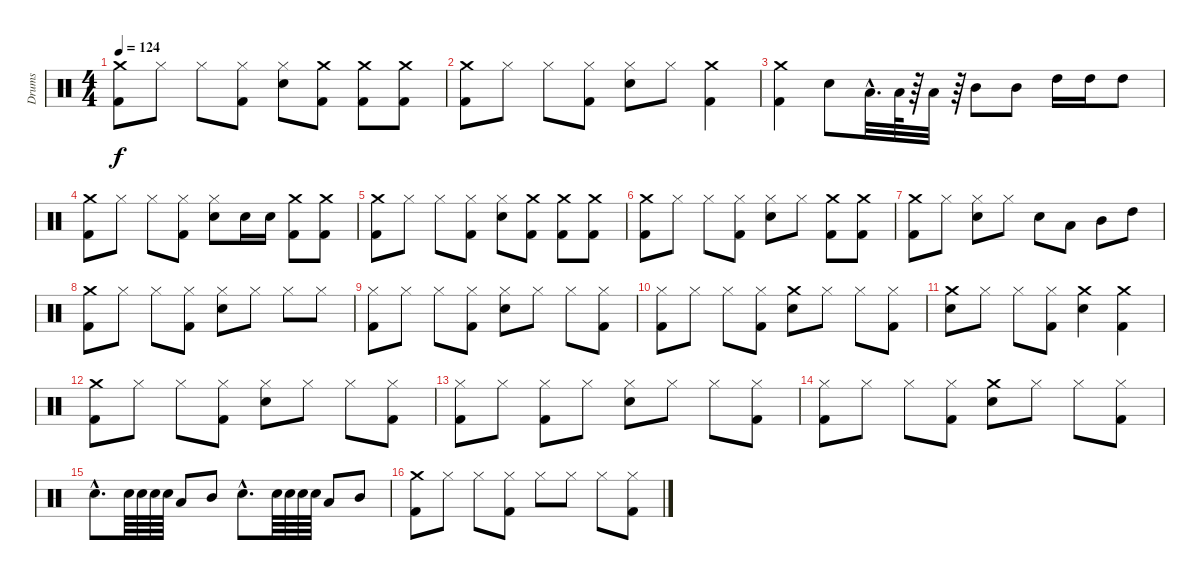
\track ("Drums" "Drums") {instrument percussion}
\staff {score}
\articulation defaults
\ts (4 4)
\tempo 124
\clef neutral
\ks c
("Kick (hit) 2" "Crash medium (hit)").8{dy f} "Hi-Hat (closed)".8 "Hi-Hat (closed)".8 ("Kick (hit) 2" "Hi-Hat (closed)").8 ("Snare (hit) 2" "Hi-Hat (closed)").8 ("Kick (hit) 2" "Crash medium (hit)").8 ("Kick (hit) 2" "Crash medium (hit)").8 ("Kick (hit) 2" "Crash medium (hit)").8 |
("Kick (hit) 2" "Crash medium (hit)").8 "Hi-Hat (closed)".8 "Hi-Hat (closed)".8 ("Kick (hit) 2" "Hi-Hat (closed)").8 ("Snare (hit) 2" "Hi-Hat (closed)").8 "Hi-Hat (closed)".8 ("Crash medium (hit)" "Kick (hit) 2").4 |
("Kick (hit) 2" "Crash medium (hit)").4 "Snare (hit) 2".8 "Low Tom (hit)"{hac}.32{d} "Low Tom (hit)".64 r.64 "Low Tom (hit)".32 r.64 "Mid Tom (hit)".8 "Mid Tom (hit)".8 "High Tom (hit)".16 "High Tom (hit)".16 "High Tom (hit)".8 |
("Kick (hit) 2" "Crash medium (hit)").8 "Hi-Hat (closed)".8 "Hi-Hat (closed)".8 ("Kick (hit) 2" "Hi-Hat (closed)").8 ("Snare (hit) 2" "Hi-Hat (closed)").8 "Snare (hit) 2".16 "Snare (hit) 2".16 ("Kick (hit) 2" "Crash medium (hit)").8 ("Kick (hit) 2" "Crash medium (hit)").8 |
("Crash medium (hit)" "Kick (hit) 2").8 "Hi-Hat (closed)".8 "Hi-Hat (closed)".8 ("Kick (hit) 2" "Hi-Hat (closed)").8 ("Snare (hit) 2" "Hi-Hat (closed)").8 ("Kick (hit) 2" "Crash medium (hit)").8 ("Kick (hit) 2" "Crash medium (hit)").8 ("Kick (hit) 2" "Crash medium (hit)").8 |
("Crash medium (hit)" "Kick (hit) 2").8 "Hi-Hat (closed)".8 "Hi-Hat (closed)".8 ("Kick (hit) 2" "Hi-Hat (closed)").8 ("Snare (hit) 2" "Hi-Hat (closed)").8 "Hi-Hat (closed)".8 ("Kick (hit) 2" "Crash medium (hit)").8 ("Kick (hit) 2" "Crash medium (hit)").8 |
("Kick (hit) 2" "Crash medium (hit)").8 "Hi-Hat (closed)".8 ("Snare (hit) 2" "Hi-Hat (closed)").8 "Hi-Hat (closed)".8 "Snare (hit) 2".8 "Low Tom (hit)".8 "Mid Tom (hit)".8 "High Tom (hit)".8 |
("Crash medium (hit)" "Kick (hit) 2").8 "Hi-Hat (closed)".8 "Hi-Hat (closed)".8 ("Kick (hit) 2" "Hi-Hat (closed)").8 ("Snare (hit) 2" "Hi-Hat (closed)").8 "Hi-Hat (closed)".8 "Hi-Hat (closed)".8 "Hi-Hat (closed)".8 |
("Hi-Hat (closed)" "Kick (hit) 2").8 "Hi-Hat (closed)".8 "Hi-Hat (closed)".8 ("Kick (hit) 2" "Hi-Hat (closed)").8 ("Hi-Hat (closed)" "Snare (hit) 2").8 "Hi-Hat (closed)".8 "Hi-Hat (closed)".8 ("Kick (hit) 2" "Hi-Hat (closed)").8 |
("Hi-Hat (closed)" "Kick (hit) 2").8 "Hi-Hat (closed)".8 "Hi-Hat (closed)".8 ("Kick (hit) 2" "Hi-Hat (closed)").8 ("Crash medium (hit)" "Snare (hit) 2").8 "Hi-Hat (closed)".8 "Hi-Hat (closed)".8 ("Kick (hit) 2" "Hi-Hat (closed)").8 |
("Snare (hit) 2" "Crash medium (hit)").8 "Hi-Hat (closed)".8 "Hi-Hat (closed)".8 ("Kick (hit) 2" "Hi-Hat (closed)").8 ("Snare (hit) 2" "Crash medium (hit)").4 ("Crash medium (hit)" "Kick (hit) 2").4 |
("Crash medium (hit)" "Kick (hit) 2").8 "Hi-Hat (closed)".8 "Hi-Hat (closed)".8 ("Kick (hit) 2" "Hi-Hat (closed)").8 ("Snare (hit) 2" "Hi-Hat (closed)").8 "Hi-Hat (closed)".8 "Hi-Hat (closed)".8 ("Kick (hit) 2" "Hi-Hat (closed)").8 |
("Kick (hit) 2" "Hi-Hat (closed)").8 "Hi-Hat (closed)".8 ("Kick (hit) 2" "Hi-Hat (closed)").8 "Hi-Hat (closed)".8 ("Snare (hit) 2" "Hi-Hat (closed)").8 "Hi-Hat (closed)".8 "Hi-Hat (closed)".8 ("Kick (hit) 2" "Hi-Hat (closed)").8 |
("Kick (hit) 2" "Hi-Hat (closed)").8 "Hi-Hat (closed)".8 "Hi-Hat (closed)".8 ("Kick (hit) 2" "Hi-Hat (closed)").8 ("Snare (hit) 2" "Crash medium (hit)").8 "Hi-Hat (closed)".8 "Hi-Hat (closed)".8 ("Kick (hit) 2" "Hi-Hat (closed)").8 |
"Snare (hit) 2"{hac}.8{d} "Snare (hit) 2".64 "Snare (hit) 2".64 "Snare (hit) 2".64 "Snare (hit) 2".64 "Low Tom (hit)".8 "Mid Tom (hit)".8 "Snare (hit) 2"{hac}.8{d} "Snare (hit) 2".64 "Snare (hit) 2".64 "Snare (hit) 2".64 "Snare (hit) 2".64 "Low Tom (hit)".8 "Mid Tom (hit)".8 |
("Kick (hit) 2" "Crash medium (hit)").8 "Hi-Hat (closed)".8 "Hi-Hat (closed)".8 ("Kick (hit) 2" "Hi-Hat (closed)").8 "Hi-Hat (closed)".8 "Hi-Hat (closed)".8 "Hi-Hat (closed)".8 ("Kick (hit) 2" "Hi-Hat (closed)").8
